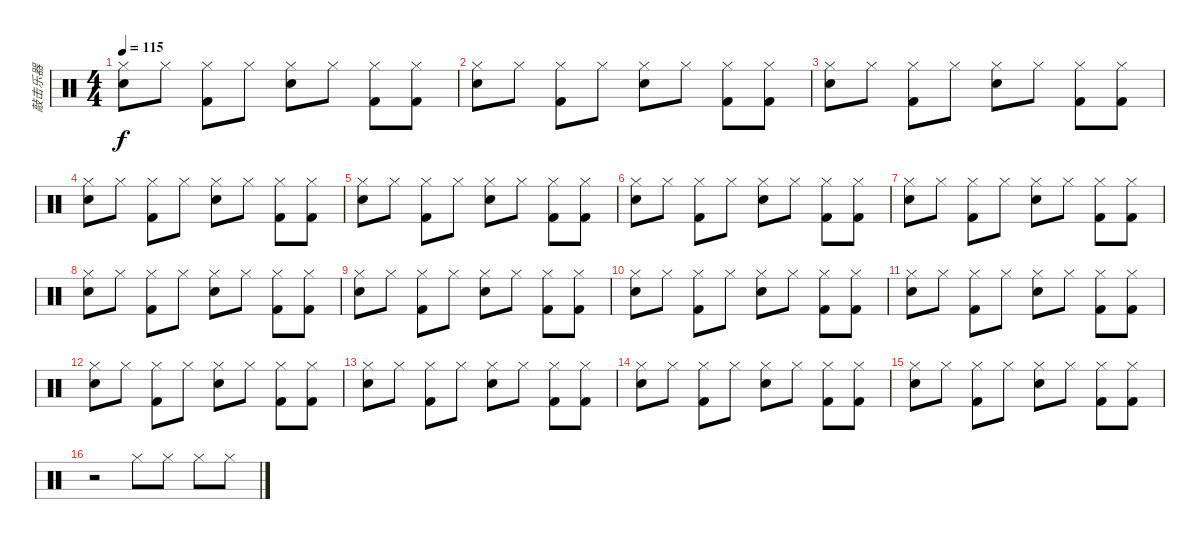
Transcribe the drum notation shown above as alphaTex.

\track ("敲击乐器" "敲击乐器") {instrument percussion}
\staff {score}
\articulation defaults
\ts (4 4)
\tempo 115
\clef neutral
\ks c
("Hi-Hat (closed)" "Electric Snare (hit)").8{dy f} "Hi-Hat (closed)".8 ("Hi-Hat (closed)" "Kick (hit) 2").8 "Hi-Hat (closed)".8 ("Hi-Hat (closed)" "Electric Snare (hit)").8 "Hi-Hat (closed)".8 ("Hi-Hat (closed)" "Kick (hit) 2").8 ("Hi-Hat (closed)" "Kick (hit) 2").8 |
("Hi-Hat (closed)" "Electric Snare (hit)").8 "Hi-Hat (closed)".8 ("Hi-Hat (closed)" "Kick (hit) 2").8 "Hi-Hat (closed)".8 ("Hi-Hat (closed)" "Electric Snare (hit)").8 "Hi-Hat (closed)".8 ("Hi-Hat (closed)" "Kick (hit) 2").8 ("Hi-Hat (closed)" "Kick (hit) 2").8 |
("Hi-Hat (closed)" "Electric Snare (hit)").8 "Hi-Hat (closed)".8 ("Hi-Hat (closed)" "Kick (hit) 2").8 "Hi-Hat (closed)".8 ("Hi-Hat (closed)" "Electric Snare (hit)").8 "Hi-Hat (closed)".8 ("Hi-Hat (closed)" "Kick (hit) 2").8 ("Hi-Hat (closed)" "Kick (hit) 2").8 |
("Hi-Hat (closed)" "Electric Snare (hit)").8 "Hi-Hat (closed)".8 ("Hi-Hat (closed)" "Kick (hit) 2").8 "Hi-Hat (closed)".8 ("Hi-Hat (closed)" "Electric Snare (hit)").8 "Hi-Hat (closed)".8 ("Hi-Hat (closed)" "Kick (hit) 2").8 ("Hi-Hat (closed)" "Kick (hit) 2").8 |
("Hi-Hat (closed)" "Electric Snare (hit)").8 "Hi-Hat (closed)".8 ("Hi-Hat (closed)" "Kick (hit) 2").8 "Hi-Hat (closed)".8 ("Hi-Hat (closed)" "Electric Snare (hit)").8 "Hi-Hat (closed)".8 ("Hi-Hat (closed)" "Kick (hit) 2").8 ("Hi-Hat (closed)" "Kick (hit) 2").8 |
("Hi-Hat (closed)" "Electric Snare (hit)").8 "Hi-Hat (closed)".8 ("Hi-Hat (closed)" "Kick (hit) 2").8 "Hi-Hat (closed)".8 ("Hi-Hat (closed)" "Electric Snare (hit)").8 "Hi-Hat (closed)".8 ("Hi-Hat (closed)" "Kick (hit) 2").8 ("Hi-Hat (closed)" "Kick (hit) 2").8 |
("Hi-Hat (closed)" "Electric Snare (hit)").8 "Hi-Hat (closed)".8 ("Hi-Hat (closed)" "Kick (hit) 2").8 "Hi-Hat (closed)".8 ("Hi-Hat (closed)" "Electric Snare (hit)").8 "Hi-Hat (closed)".8 ("Hi-Hat (closed)" "Kick (hit) 2").8 ("Hi-Hat (closed)" "Kick (hit) 2").8 |
("Hi-Hat (closed)" "Electric Snare (hit)").8 "Hi-Hat (closed)".8 ("Hi-Hat (closed)" "Kick (hit) 2").8 "Hi-Hat (closed)".8 ("Hi-Hat (closed)" "Electric Snare (hit)").8 "Hi-Hat (closed)".8 ("Hi-Hat (closed)" "Kick (hit) 2").8 ("Hi-Hat (closed)" "Kick (hit) 2").8 |
("Hi-Hat (closed)" "Electric Snare (hit)").8 "Hi-Hat (closed)".8 ("Hi-Hat (closed)" "Kick (hit) 2").8 "Hi-Hat (closed)".8 ("Hi-Hat (closed)" "Electric Snare (hit)").8 "Hi-Hat (closed)".8 ("Hi-Hat (closed)" "Kick (hit) 2").8 ("Hi-Hat (closed)" "Kick (hit) 2").8 |
("Hi-Hat (closed)" "Electric Snare (hit)").8 "Hi-Hat (closed)".8 ("Hi-Hat (closed)" "Kick (hit) 2").8 "Hi-Hat (closed)".8 ("Hi-Hat (closed)" "Electric Snare (hit)").8 "Hi-Hat (closed)".8 ("Hi-Hat (closed)" "Kick (hit) 2").8 ("Hi-Hat (closed)" "Kick (hit) 2").8 |
("Hi-Hat (closed)" "Electric Snare (hit)").8 "Hi-Hat (closed)".8 ("Hi-Hat (closed)" "Kick (hit) 2").8 "Hi-Hat (closed)".8 ("Hi-Hat (closed)" "Electric Snare (hit)").8 "Hi-Hat (closed)".8 ("Hi-Hat (closed)" "Kick (hit) 2").8 ("Hi-Hat (closed)" "Kick (hit) 2").8 |
("Hi-Hat (closed)" "Electric Snare (hit)").8 "Hi-Hat (closed)".8 ("Hi-Hat (closed)" "Kick (hit) 2").8 "Hi-Hat (closed)".8 ("Hi-Hat (closed)" "Electric Snare (hit)").8 "Hi-Hat (closed)".8 ("Hi-Hat (closed)" "Kick (hit) 2").8 ("Hi-Hat (closed)" "Kick (hit) 2").8 |
("Hi-Hat (closed)" "Electric Snare (hit)").8 "Hi-Hat (closed)".8 ("Hi-Hat (closed)" "Kick (hit) 2").8 "Hi-Hat (closed)".8 ("Hi-Hat (closed)" "Electric Snare (hit)").8 "Hi-Hat (closed)".8 ("Hi-Hat (closed)" "Kick (hit) 2").8 ("Hi-Hat (closed)" "Kick (hit) 2").8 |
("Hi-Hat (closed)" "Electric Snare (hit)").8 "Hi-Hat (closed)".8 ("Hi-Hat (closed)" "Kick (hit) 2").8 "Hi-Hat (closed)".8 ("Hi-Hat (closed)" "Electric Snare (hit)").8 "Hi-Hat (closed)".8 ("Hi-Hat (closed)" "Kick (hit) 2").8 ("Hi-Hat (closed)" "Kick (hit) 2").8 |
("Hi-Hat (closed)" "Electric Snare (hit)").8 "Hi-Hat (closed)".8 ("Hi-Hat (closed)" "Kick (hit) 2").8 "Hi-Hat (closed)".8 ("Hi-Hat (closed)" "Electric Snare (hit)").8 "Hi-Hat (closed)".8 ("Hi-Hat (closed)" "Kick (hit) 2").8 ("Hi-Hat (closed)" "Kick (hit) 2").8 |
r.2 "Hi-Hat (closed)".8 "Hi-Hat (closed)".8 "Hi-Hat (closed)".8 "Hi-Hat (closed)".8
